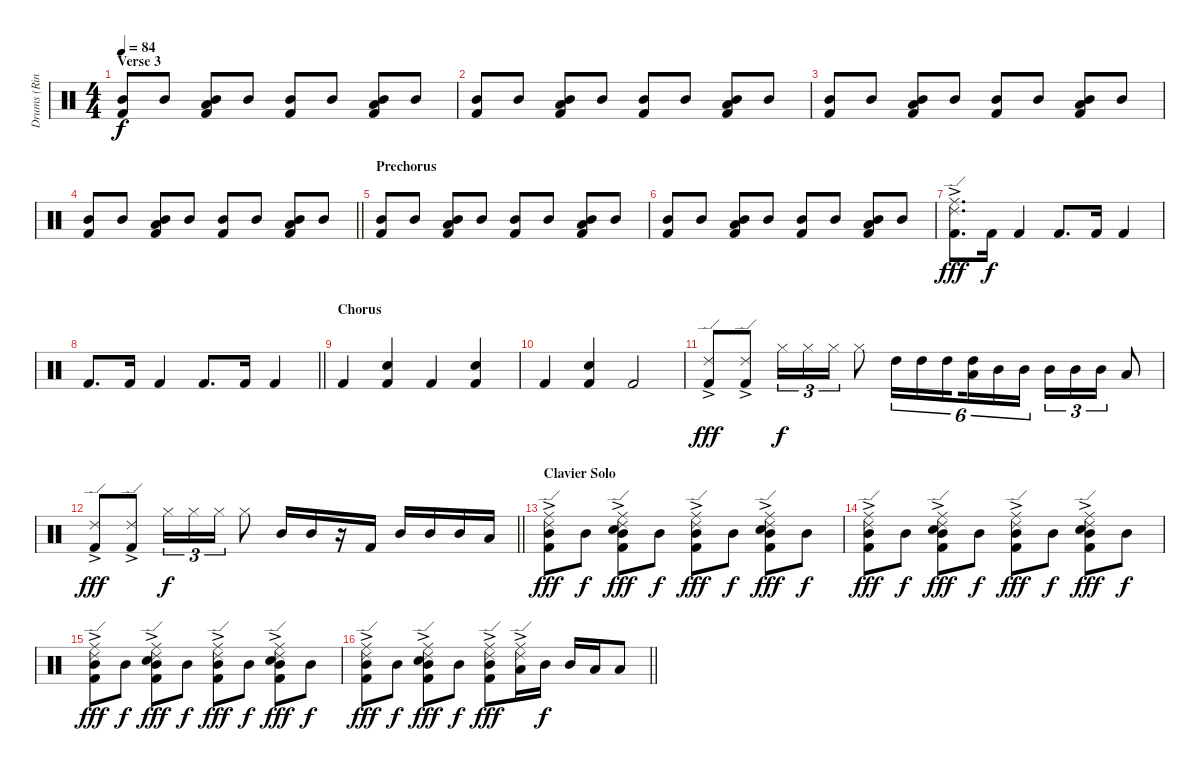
\track ("Drums (Ringo Starr)" "Drums (Rin") {instrument percussion}
\staff {score}
\articulation defaults
\ts (4 4)
\section ("" "Verse 3")
\tempo 84
\clef neutral
\ks c
("Mid Tom (hit)" "Kick (hit) 2").8{dy f} "Mid Tom (hit)".8 ("Mid Tom (hit)" "Low Tom (hit)" "Kick (hit) 2").8 "Mid Tom (hit)".8 ("Mid Tom (hit)" "Kick (hit) 2").8 "Mid Tom (hit)".8 ("Mid Tom (hit)" "Low Tom (hit)" "Kick (hit) 2").8 "Mid Tom (hit)".8 |
("Mid Tom (hit)" "Kick (hit) 2").8 "Mid Tom (hit)".8 ("Mid Tom (hit)" "Low Tom (hit)" "Kick (hit) 2").8 "Mid Tom (hit)".8 ("Mid Tom (hit)" "Kick (hit) 2").8 "Mid Tom (hit)".8 ("Mid Tom (hit)" "Low Tom (hit)" "Kick (hit) 2").8 "Mid Tom (hit)".8 |
("Mid Tom (hit)" "Kick (hit) 2").8 "Mid Tom (hit)".8 ("Mid Tom (hit)" "Low Tom (hit)" "Kick (hit) 2").8 "Mid Tom (hit)".8 ("Mid Tom (hit)" "Kick (hit) 2").8 "Mid Tom (hit)".8 ("Mid Tom (hit)" "Low Tom (hit)" "Kick (hit) 2").8 "Mid Tom (hit)".8 |
\barLineRight lightlight
("Mid Tom (hit)" "Kick (hit) 2").8 "Mid Tom (hit)".8 ("Mid Tom (hit)" "Low Tom (hit)" "Kick (hit) 2").8 "Mid Tom (hit)".8 ("Mid Tom (hit)" "Kick (hit) 2").8 "Mid Tom (hit)".8 ("Mid Tom (hit)" "Low Tom (hit)" "Kick (hit) 2").8 "Mid Tom (hit)".8 |
\section ("" "Prechorus")
("Mid Tom (hit)" "Kick (hit) 2").8 "Mid Tom (hit)".8 ("Mid Tom (hit)" "Low Tom (hit)" "Kick (hit) 2").8 "Mid Tom (hit)".8 ("Mid Tom (hit)" "Kick (hit) 2").8 "Mid Tom (hit)".8 ("Mid Tom (hit)" "Low Tom (hit)" "Kick (hit) 2").8 "Mid Tom (hit)".8 |
("Mid Tom (hit)" "Kick (hit) 2").8 "Mid Tom (hit)".8 ("Mid Tom (hit)" "Low Tom (hit)" "Kick (hit) 2").8 "Mid Tom (hit)".8 ("Mid Tom (hit)" "Kick (hit) 2").8 "Mid Tom (hit)".8 ("Mid Tom (hit)" "Low Tom (hit)" "Kick (hit) 2").8 "Mid Tom (hit)".8 |
("Ride (edge) 2"{ac} "Ride (middle)"{ac} "Kick (hit) 2").8{d dy fff} "Kick (hit) 2".16{dy f} "Kick (hit) 2".4 "Kick (hit) 2".8{d} "Kick (hit) 2".16 "Kick (hit) 2".4 |
\barLineRight lightlight "Kick (hit) 2".8{d} "Kick (hit) 2".16 "Kick (hit) 2".4 "Kick (hit) 2".8{d} "Kick (hit) 2".16 "Kick (hit) 2".4
|
\section ("" "Chorus")
"Kick (hit) 2".4 ("Snare (hit) 2" "Kick (hit) 2").4 "Kick (hit) 2".4 ("Snare (hit) 2" "Kick (hit) 2").4 |
"Kick (hit) 2".4 ("Snare (hit) 2" "Kick (hit) 2").4 "Kick (hit) 2".2 |
("Ride (edge) 2"{ac} "Kick (hit) 2").8{dy fff} ("Ride (edge) 2"{ac} "Kick (hit) 2").8 "Hi-Hat (closed)".16{tu (3 2) dy f} "Hi-Hat (closed)".16{tu (3 2)} "Hi-Hat (closed)".16{tu (3 2)} "Hi-Hat (closed)".8 "High Tom (hit)".16{tu (6 4)} "High Tom (hit)".16{tu (6 4)} "High Tom (hit)".16{tu (6 4) beam splitsecondary} ("High Tom (hit)" "Low Tom (hit)").16{tu (6 4)} "Mid Tom (hit)".16{tu (6 4)} "Mid Tom (hit)".16{tu (6 4)} "Mid Tom (hit)".16{tu (3 2)} "Mid Tom (hit)".16{tu (3 2)} "Mid Tom (hit)".16{tu (3 2)} "Low Tom (hit)".8 |
\barLineRight lightlight
("Ride (edge) 2"{ac} "Kick (hit) 2").8{dy fff} ("Ride (edge) 2"{ac} "Kick (hit) 2").8 "Hi-Hat (closed)".16{tu (3 2) dy f} "Hi-Hat (closed)".16{tu (3 2)} "Hi-Hat (closed)".16{tu (3 2)} "Hi-Hat (closed)".8 "Mid Tom (hit)".16 "Mid Tom (hit)".16 r.16 "Kick (hit) 2".16 "Mid Tom (hit)".16 "Mid Tom (hit)".16 "Mid Tom (hit)".16 "Low Tom (hit)".16 |
\section ("" "Clavier Solo")
("Ride (edge) 2"{ac} "Ride (middle)"{ac} "Mid Tom (hit)" "Kick (hit) 2").8{dy fff} "Mid Tom (hit)".8{dy f} ("Ride (edge) 2"{ac} "Ride (middle)"{ac} "Mid Tom (hit)" "Snare (hit) 2" "Kick (hit) 2").8{dy fff} "Mid Tom (hit)".8{dy f} ("Ride (edge) 2"{ac} "Ride (middle)"{ac} "Mid Tom (hit)" "Kick (hit) 2").8{dy fff} "Mid Tom (hit)".8{dy f} ("Ride (edge) 2"{ac} "Ride (middle)"{ac} "Mid Tom (hit)" "Snare (hit) 2" "Kick (hit) 2").8{dy fff} "Mid Tom (hit)".8{dy f} |
("Ride (edge) 2"{ac} "Ride (middle)"{ac} "Mid Tom (hit)" "Kick (hit) 2").8{dy fff} "Mid Tom (hit)".8{dy f} ("Ride (edge) 2"{ac} "Ride (middle)"{ac} "Mid Tom (hit)" "Snare (hit) 2" "Kick (hit) 2").8{dy fff} "Mid Tom (hit)".8{dy f} ("Ride (edge) 2"{ac} "Ride (middle)"{ac} "Mid Tom (hit)" "Kick (hit) 2").8{dy fff} "Mid Tom (hit)".8{dy f} ("Ride (edge) 2"{ac} "Ride (middle)"{ac} "Mid Tom (hit)" "Snare (hit) 2" "Kick (hit) 2").8{dy fff} "Mid Tom (hit)".8{dy f} |
("Ride (edge) 2"{ac} "Ride (middle)"{ac} "Mid Tom (hit)" "Kick (hit) 2").8{dy fff} "Mid Tom (hit)".8{dy f} ("Ride (edge) 2"{ac} "Ride (middle)"{ac} "Mid Tom (hit)" "Snare (hit) 2" "Kick (hit) 2").8{dy fff} "Mid Tom (hit)".8{dy f} ("Ride (edge) 2"{ac} "Ride (middle)"{ac} "Mid Tom (hit)" "Kick (hit) 2").8{dy fff} "Mid Tom (hit)".8{dy f} ("Ride (edge) 2"{ac} "Ride (middle)"{ac} "Mid Tom (hit)" "Snare (hit) 2" "Kick (hit) 2").8{dy fff} "Mid Tom (hit)".8{dy f} |
\barLineRight lightlight
("Ride (edge) 2"{ac} "Ride (middle)"{ac} "Mid Tom (hit)" "Kick (hit) 2").8{dy fff} "Mid Tom (hit)".8{dy f} ("Ride (edge) 2"{ac} "Ride (middle)"{ac} "Mid Tom (hit)" "Snare (hit) 2" "Kick (hit) 2").8{dy fff} "Mid Tom (hit)".8{dy f} ("Ride (edge) 2"{ac} "Ride (middle)"{ac} "Mid Tom (hit)" "Kick (hit) 2").8{dy fff} ("Ride (edge) 2"{ac} "Ride (middle)"{ac} "Low Tom (hit)").16 "Mid Tom (hit)".16{dy f} "Mid Tom (hit)".16 "Low Tom (hit)".16 "Low Tom (hit)".8
